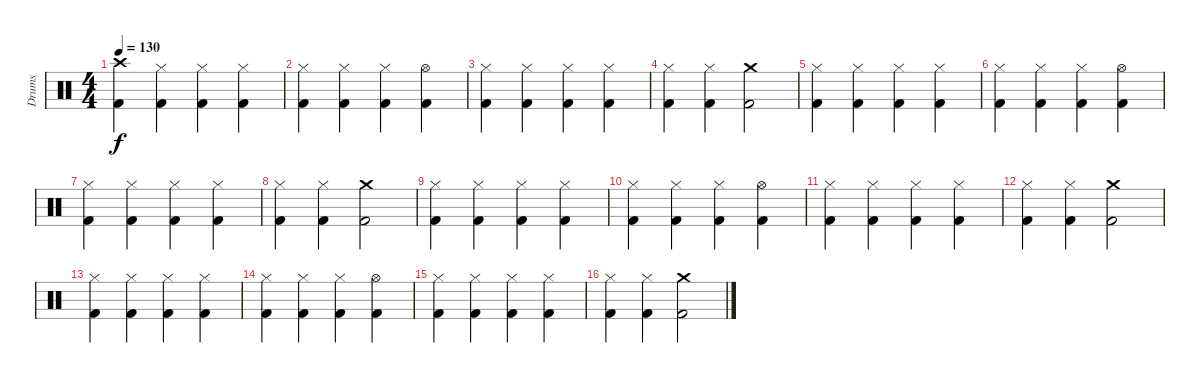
\track ("Drums" "Drums") {instrument percussion}
\staff {score}
\articulation defaults
\ts (4 4)
\tempo 130
\clef neutral
\ks c
("Crash high (hit)" "Kick (hit) 2").4{dy f} ("Hi-Hat (closed)" "Kick (hit) 2").4 ("Hi-Hat (closed)" "Kick (hit) 2").4 ("Hi-Hat (closed)" "Kick (hit) 2").4 |
("Hi-Hat (closed)" "Kick (hit) 2").4 ("Hi-Hat (closed)" "Kick (hit) 2").4 ("Hi-Hat (closed)" "Kick (hit) 2").4 ("Hi-Hat (open)" "Kick (hit) 2").4 |
("Hi-Hat (closed)" "Kick (hit) 2").4 ("Hi-Hat (closed)" "Kick (hit) 2").4 ("Hi-Hat (closed)" "Kick (hit) 2").4 ("Hi-Hat (closed)" "Kick (hit) 2").4 |
("Hi-Hat (closed)" "Kick (hit) 2").4 ("Hi-Hat (closed)" "Kick (hit) 2").4 ("Crash medium (hit)" "Kick (hit) 2").2 |
("Hi-Hat (closed)" "Kick (hit) 2").4 ("Hi-Hat (closed)" "Kick (hit) 2").4 ("Hi-Hat (closed)" "Kick (hit) 2").4 ("Hi-Hat (closed)" "Kick (hit) 2").4 |
("Hi-Hat (closed)" "Kick (hit) 2").4 ("Hi-Hat (closed)" "Kick (hit) 2").4 ("Hi-Hat (closed)" "Kick (hit) 2").4 ("Hi-Hat (open)" "Kick (hit) 2").4 |
("Hi-Hat (closed)" "Kick (hit) 2").4 ("Hi-Hat (closed)" "Kick (hit) 2").4 ("Hi-Hat (closed)" "Kick (hit) 2").4 ("Hi-Hat (closed)" "Kick (hit) 2").4 |
("Hi-Hat (closed)" "Kick (hit) 2").4 ("Hi-Hat (closed)" "Kick (hit) 2").4 ("Crash medium (hit)" "Kick (hit) 2").2 |
("Hi-Hat (closed)" "Kick (hit) 2").4 ("Hi-Hat (closed)" "Kick (hit) 2").4 ("Hi-Hat (closed)" "Kick (hit) 2").4 ("Hi-Hat (closed)" "Kick (hit) 2").4 |
("Hi-Hat (closed)" "Kick (hit) 2").4 ("Hi-Hat (closed)" "Kick (hit) 2").4 ("Hi-Hat (closed)" "Kick (hit) 2").4 ("Hi-Hat (open)" "Kick (hit) 2").4 |
("Hi-Hat (closed)" "Kick (hit) 2").4 ("Hi-Hat (closed)" "Kick (hit) 2").4 ("Hi-Hat (closed)" "Kick (hit) 2").4 ("Hi-Hat (closed)" "Kick (hit) 2").4 |
("Hi-Hat (closed)" "Kick (hit) 2").4 ("Hi-Hat (closed)" "Kick (hit) 2").4 ("Crash medium (hit)" "Kick (hit) 2").2 |
("Hi-Hat (closed)" "Kick (hit) 2").4 ("Hi-Hat (closed)" "Kick (hit) 2").4 ("Hi-Hat (closed)" "Kick (hit) 2").4 ("Hi-Hat (closed)" "Kick (hit) 2").4 |
("Hi-Hat (closed)" "Kick (hit) 2").4 ("Hi-Hat (closed)" "Kick (hit) 2").4 ("Hi-Hat (closed)" "Kick (hit) 2").4 ("Hi-Hat (open)" "Kick (hit) 2").4 |
("Hi-Hat (closed)" "Kick (hit) 2").4 ("Hi-Hat (closed)" "Kick (hit) 2").4 ("Hi-Hat (closed)" "Kick (hit) 2").4 ("Hi-Hat (closed)" "Kick (hit) 2").4 |
("Hi-Hat (closed)" "Kick (hit) 2").4 ("Hi-Hat (closed)" "Kick (hit) 2").4 ("Crash medium (hit)" "Kick (hit) 2").2
